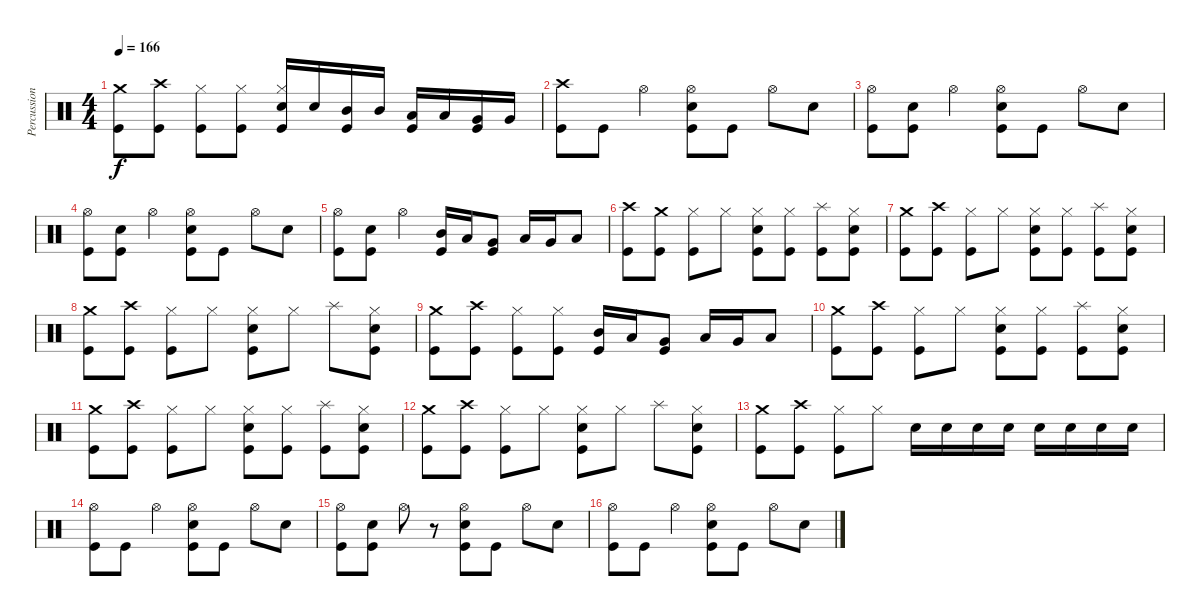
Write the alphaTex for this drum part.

\track ("Percussion" "Percussion") {instrument percussion}
\staff {score}
\articulation defaults
\ts (4 4)
\tempo 166
\clef neutral
\ks c
("Crash medium (hit)" "Kick (hit)").8{dy f} ("Crash high (hit)" "Kick (hit)").8 ("Hi-Hat (closed)" "Kick (hit)").8 ("Hi-Hat (closed)" "Kick (hit)").8 ("Hi-Hat (closed)" "Electric Snare (hit)" "Kick (hit)").16 "Electric Snare (hit)".16 ("Mid Tom (hit)" "Kick (hit)").16 "Mid Tom (hit)".16 ("Low Tom (hit)" "Kick (hit)").16 "Low Tom (hit)".16 ("Very Low Tom (hit)" "Kick (hit)").16 "Very Low Tom (hit)".16 |
("Crash high (hit)" "Kick (hit)").8 "Kick (hit)".8 "Hi-Hat (open)".4 ("Hi-Hat (open)" "Electric Snare (hit)" "Kick (hit)").8 "Kick (hit)".8 "Hi-Hat (open)".8 "Electric Snare (hit)".8 |
("Hi-Hat (open)" "Kick (hit)").8 ("Electric Snare (hit)" "Kick (hit)").8 "Hi-Hat (open)".4 ("Hi-Hat (open)" "Electric Snare (hit)" "Kick (hit)").8 "Kick (hit)".8 "Hi-Hat (open)".8 "Electric Snare (hit)".8 |
("Hi-Hat (open)" "Kick (hit)").8 ("Electric Snare (hit)" "Kick (hit)").8 "Hi-Hat (open)".4 ("Hi-Hat (open)" "Electric Snare (hit)" "Kick (hit)").8 "Kick (hit)".8 "Hi-Hat (open)".8 "Electric Snare (hit)".8 |
("Hi-Hat (open)" "Kick (hit)").8 ("Electric Snare (hit)" "Kick (hit)").8 "Hi-Hat (open)".4 ("Mid Tom (hit)" "Kick (hit)").16 "Low Tom (hit)".16 ("Very Low Tom (hit)" "Kick (hit)").8 "Low Tom (hit)".16 "Very Low Tom (hit)".16 "Low Floor Tom (hit)".8 |
("Crash high (hit)" "Kick (hit)").8 ("Crash medium (hit)" "Kick (hit)").8 ("Hi-Hat (closed)" "Kick (hit)").8 "Hi-Hat (closed)".8 ("Hi-Hat (closed)" "Electric Snare (hit)" "Kick (hit)").8 ("Hi-Hat (closed)" "Kick (hit)").8 ("Splash (hit)" "Kick (hit)").8 ("Hi-Hat (closed)" "Electric Snare (hit)" "Kick (hit)").8 |
("Crash medium (hit)" "Kick (hit)").8 ("Crash high (hit)" "Kick (hit)").8 ("Hi-Hat (closed)" "Kick (hit)").8 "Hi-Hat (closed)".8 ("Hi-Hat (closed)" "Electric Snare (hit)" "Kick (hit)").8 ("Hi-Hat (closed)" "Kick (hit)").8 ("Splash (hit)" "Kick (hit)").8 ("Hi-Hat (closed)" "Electric Snare (hit)" "Kick (hit)").8 |
("Crash medium (hit)" "Kick (hit)").8 ("Crash high (hit)" "Kick (hit)").8 ("Hi-Hat (closed)" "Kick (hit)").8 "Hi-Hat (closed)".8 ("Hi-Hat (closed)" "Electric Snare (hit)" "Kick (hit)").8 "Hi-Hat (closed)".8 "Splash (hit)".8 ("Hi-Hat (closed)" "Electric Snare (hit)" "Kick (hit)").8 |
("Crash medium (hit)" "Kick (hit)").8 ("Crash high (hit)" "Kick (hit)").8 ("Hi-Hat (closed)" "Kick (hit)").8 ("Hi-Hat (closed)" "Kick (hit)").8 ("Mid Tom (hit)" "Kick (hit)").16 "Low Tom (hit)".16 ("Very Low Tom (hit)" "Kick (hit)").8 "Low Tom (hit)".16 "Very Low Tom (hit)".16 "Low Floor Tom (hit)".8 |
("Crash medium (hit)" "Kick (hit)").8 ("Crash high (hit)" "Kick (hit)").8 ("Hi-Hat (closed)" "Kick (hit)").8 "Hi-Hat (closed)".8 ("Hi-Hat (closed)" "Electric Snare (hit)" "Kick (hit)").8 ("Hi-Hat (closed)" "Kick (hit)").8 ("Splash (hit)" "Kick (hit)").8 ("Hi-Hat (closed)" "Electric Snare (hit)" "Kick (hit)").8 |
("Crash medium (hit)" "Kick (hit)").8 ("Crash high (hit)" "Kick (hit)").8 ("Hi-Hat (closed)" "Kick (hit)").8 "Hi-Hat (closed)".8 ("Hi-Hat (closed)" "Electric Snare (hit)" "Kick (hit)").8 ("Hi-Hat (closed)" "Kick (hit)").8 ("Splash (hit)" "Kick (hit)").8 ("Hi-Hat (closed)" "Electric Snare (hit)" "Kick (hit)").8 |
("Crash medium (hit)" "Kick (hit)").8 ("Crash high (hit)" "Kick (hit)").8 ("Hi-Hat (closed)" "Kick (hit)").8 "Hi-Hat (closed)".8 ("Hi-Hat (closed)" "Electric Snare (hit)" "Kick (hit)").8 "Hi-Hat (closed)".8 "Splash (hit)".8 ("Hi-Hat (closed)" "Electric Snare (hit)" "Kick (hit)").8 |
("Crash medium (hit)" "Kick (hit)").8 ("Crash high (hit)" "Kick (hit)").8 ("Hi-Hat (closed)" "Kick (hit)").8 "Hi-Hat (closed)".8 "Electric Snare (hit)".16 "Electric Snare (hit)".16 "Electric Snare (hit)".16 "Electric Snare (hit)".16 "Electric Snare (hit)".16 "Electric Snare (hit)".16 "Electric Snare (hit)".16 "Electric Snare (hit)".16 |
("Hi-Hat (open)" "Kick (hit)").8 "Kick (hit)".8 "Hi-Hat (open)".4 ("Hi-Hat (open)" "Electric Snare (hit)" "Kick (hit)").8 "Kick (hit)".8 "Hi-Hat (open)".8 "Electric Snare (hit)".8 |
("Hi-Hat (open)" "Kick (hit)").8 ("Electric Snare (hit)" "Kick (hit)").8 "Hi-Hat (open)".8 r.8 ("Hi-Hat (open)" "Electric Snare (hit)" "Kick (hit)").8 "Kick (hit)".8 "Hi-Hat (open)".8 "Electric Snare (hit)".8 |
("Hi-Hat (open)" "Kick (hit)").8 "Kick (hit)".8 "Hi-Hat (open)".4 ("Hi-Hat (open)" "Electric Snare (hit)" "Kick (hit)").8 "Kick (hit)".8 "Hi-Hat (open)".8 "Electric Snare (hit)".8
